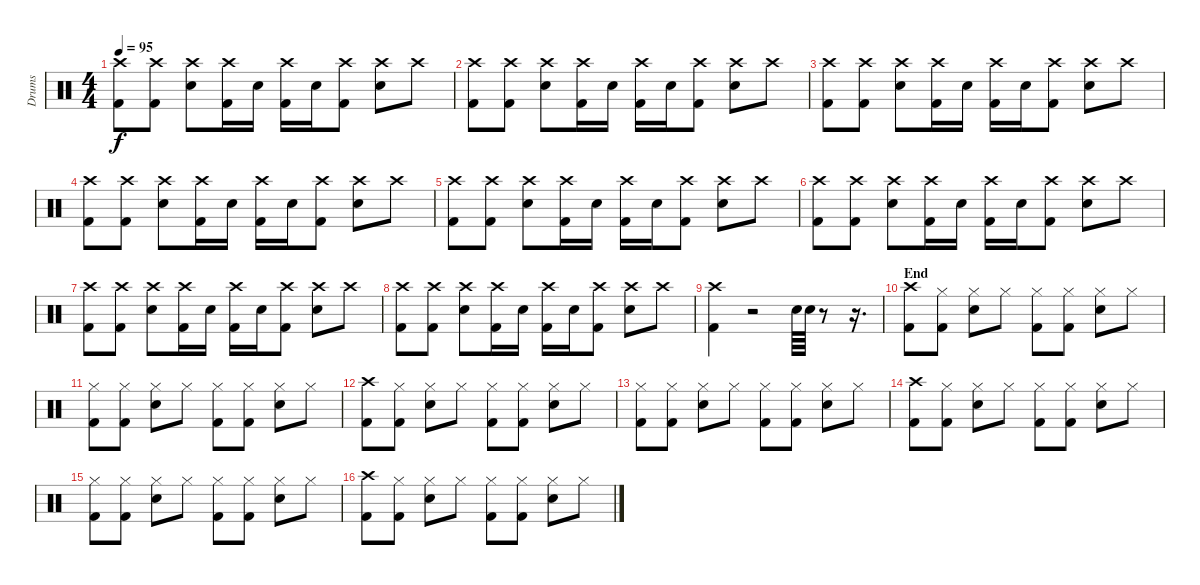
\track ("Drums" "Drums") {instrument percussion}
\staff {score}
\articulation defaults
\ts (4 4)
\tempo 95
\clef neutral
\ks c
("Crash high (hit)" "Kick (hit) 2").8{dy f} ("Crash high (hit)" "Kick (hit) 2").8 ("Crash high (hit)" "Electric Snare (hit)").8 ("Crash high (hit)" "Kick (hit) 2").16 "Electric Snare (hit)".16 ("Crash high (hit)" "Kick (hit) 2").16 "Electric Snare (hit)".16 ("Crash high (hit)" "Kick (hit) 2").8 ("Crash high (hit)" "Electric Snare (hit)").8 "Crash high (hit)".8 |
("Crash high (hit)" "Kick (hit) 2").8 ("Crash high (hit)" "Kick (hit) 2").8 ("Crash high (hit)" "Electric Snare (hit)").8 ("Crash high (hit)" "Kick (hit) 2").16 "Electric Snare (hit)".16 ("Crash high (hit)" "Kick (hit) 2").16 "Electric Snare (hit)".16 ("Crash high (hit)" "Kick (hit) 2").8 ("Crash high (hit)" "Electric Snare (hit)").8 "Crash high (hit)".8 |
("Crash high (hit)" "Kick (hit) 2").8 ("Crash high (hit)" "Kick (hit) 2").8 ("Crash high (hit)" "Electric Snare (hit)").8 ("Crash high (hit)" "Kick (hit) 2").16 "Electric Snare (hit)".16 ("Crash high (hit)" "Kick (hit) 2").16 "Electric Snare (hit)".16 ("Crash high (hit)" "Kick (hit) 2").8 ("Crash high (hit)" "Electric Snare (hit)").8 "Crash high (hit)".8 |
("Crash high (hit)" "Kick (hit) 2").8 ("Crash high (hit)" "Kick (hit) 2").8 ("Crash high (hit)" "Electric Snare (hit)").8 ("Crash high (hit)" "Kick (hit) 2").16 "Electric Snare (hit)".16 ("Crash high (hit)" "Kick (hit) 2").16 "Electric Snare (hit)".16 ("Crash high (hit)" "Kick (hit) 2").8 ("Crash high (hit)" "Electric Snare (hit)").8 "Crash high (hit)".8 |
("Crash high (hit)" "Kick (hit) 2").8 ("Crash high (hit)" "Kick (hit) 2").8 ("Crash high (hit)" "Electric Snare (hit)").8 ("Crash high (hit)" "Kick (hit) 2").16 "Electric Snare (hit)".16 ("Crash high (hit)" "Kick (hit) 2").16 "Electric Snare (hit)".16 ("Crash high (hit)" "Kick (hit) 2").8 ("Crash high (hit)" "Electric Snare (hit)").8 "Crash high (hit)".8 |
("Crash high (hit)" "Kick (hit) 2").8 ("Crash high (hit)" "Kick (hit) 2").8 ("Crash high (hit)" "Electric Snare (hit)").8 ("Crash high (hit)" "Kick (hit) 2").16 "Electric Snare (hit)".16 ("Crash high (hit)" "Kick (hit) 2").16 "Electric Snare (hit)".16 ("Crash high (hit)" "Kick (hit) 2").8 ("Crash high (hit)" "Electric Snare (hit)").8 "Crash high (hit)".8 |
("Crash high (hit)" "Kick (hit) 2").8 ("Crash high (hit)" "Kick (hit) 2").8 ("Crash high (hit)" "Electric Snare (hit)").8 ("Crash high (hit)" "Kick (hit) 2").16 "Electric Snare (hit)".16 ("Crash high (hit)" "Kick (hit) 2").16 "Electric Snare (hit)".16 ("Crash high (hit)" "Kick (hit) 2").8 ("Crash high (hit)" "Electric Snare (hit)").8 "Crash high (hit)".8 |
("Crash high (hit)" "Kick (hit) 2").8 ("Crash high (hit)" "Kick (hit) 2").8 ("Crash high (hit)" "Electric Snare (hit)").8 ("Crash high (hit)" "Kick (hit) 2").16 "Electric Snare (hit)".16 ("Crash high (hit)" "Kick (hit) 2").16 "Electric Snare (hit)".16 ("Crash high (hit)" "Kick (hit) 2").8 ("Crash high (hit)" "Electric Snare (hit)").8 "Crash high (hit)".8 |
("Crash high (hit)" "Kick (hit) 2").4 r.2 "Electric Snare (hit)".64 "Electric Snare (hit)".64 r.8 r.16{d} |
\section ("" "End")
("Crash high (hit)" "Kick (hit) 2").8{volume 15} ("Hi-Hat (closed)" "Kick (hit) 2").8 ("Hi-Hat (closed)" "Electric Snare (hit)").8 "Hi-Hat (closed)".8 ("Hi-Hat (closed)" "Kick (hit) 2").8 ("Hi-Hat (closed)" "Kick (hit) 2").8 ("Hi-Hat (closed)" "Electric Snare (hit)").8 "Hi-Hat (closed)".8 |
("Hi-Hat (closed)" "Kick (hit) 2").8 ("Hi-Hat (closed)" "Kick (hit) 2").8 ("Hi-Hat (closed)" "Electric Snare (hit)").8 "Hi-Hat (closed)".8 ("Hi-Hat (closed)" "Kick (hit) 2").8 ("Hi-Hat (closed)" "Kick (hit) 2").8 ("Hi-Hat (closed)" "Electric Snare (hit)").8 "Hi-Hat (closed)".8 |
("Crash high (hit)" "Kick (hit) 2").8{volume 15} ("Hi-Hat (closed)" "Kick (hit) 2").8 ("Hi-Hat (closed)" "Electric Snare (hit)").8 "Hi-Hat (closed)".8 ("Hi-Hat (closed)" "Kick (hit) 2").8 ("Hi-Hat (closed)" "Kick (hit) 2").8 ("Hi-Hat (closed)" "Electric Snare (hit)").8 "Hi-Hat (closed)".8 |
("Hi-Hat (closed)" "Kick (hit) 2").8 ("Hi-Hat (closed)" "Kick (hit) 2").8 ("Hi-Hat (closed)" "Electric Snare (hit)").8 "Hi-Hat (closed)".8 ("Hi-Hat (closed)" "Kick (hit) 2").8 ("Hi-Hat (closed)" "Kick (hit) 2").8 ("Hi-Hat (closed)" "Electric Snare (hit)").8 "Hi-Hat (closed)".8 |
("Crash high (hit)" "Kick (hit) 2").8{volume 15} ("Hi-Hat (closed)" "Kick (hit) 2").8 ("Hi-Hat (closed)" "Electric Snare (hit)").8 "Hi-Hat (closed)".8 ("Hi-Hat (closed)" "Kick (hit) 2").8 ("Hi-Hat (closed)" "Kick (hit) 2").8 ("Hi-Hat (closed)" "Electric Snare (hit)").8 "Hi-Hat (closed)".8 |
("Hi-Hat (closed)" "Kick (hit) 2").8 ("Hi-Hat (closed)" "Kick (hit) 2").8 ("Hi-Hat (closed)" "Electric Snare (hit)").8 "Hi-Hat (closed)".8 ("Hi-Hat (closed)" "Kick (hit) 2").8 ("Hi-Hat (closed)" "Kick (hit) 2").8 ("Hi-Hat (closed)" "Electric Snare (hit)").8 "Hi-Hat (closed)".8 |
("Crash high (hit)" "Kick (hit) 2").8{volume 14} ("Hi-Hat (closed)" "Kick (hit) 2").8 ("Hi-Hat (closed)" "Electric Snare (hit)").8 "Hi-Hat (closed)".8 ("Hi-Hat (closed)" "Kick (hit) 2").8 ("Hi-Hat (closed)" "Kick (hit) 2").8 ("Hi-Hat (closed)" "Electric Snare (hit)").8 "Hi-Hat (closed)".8
